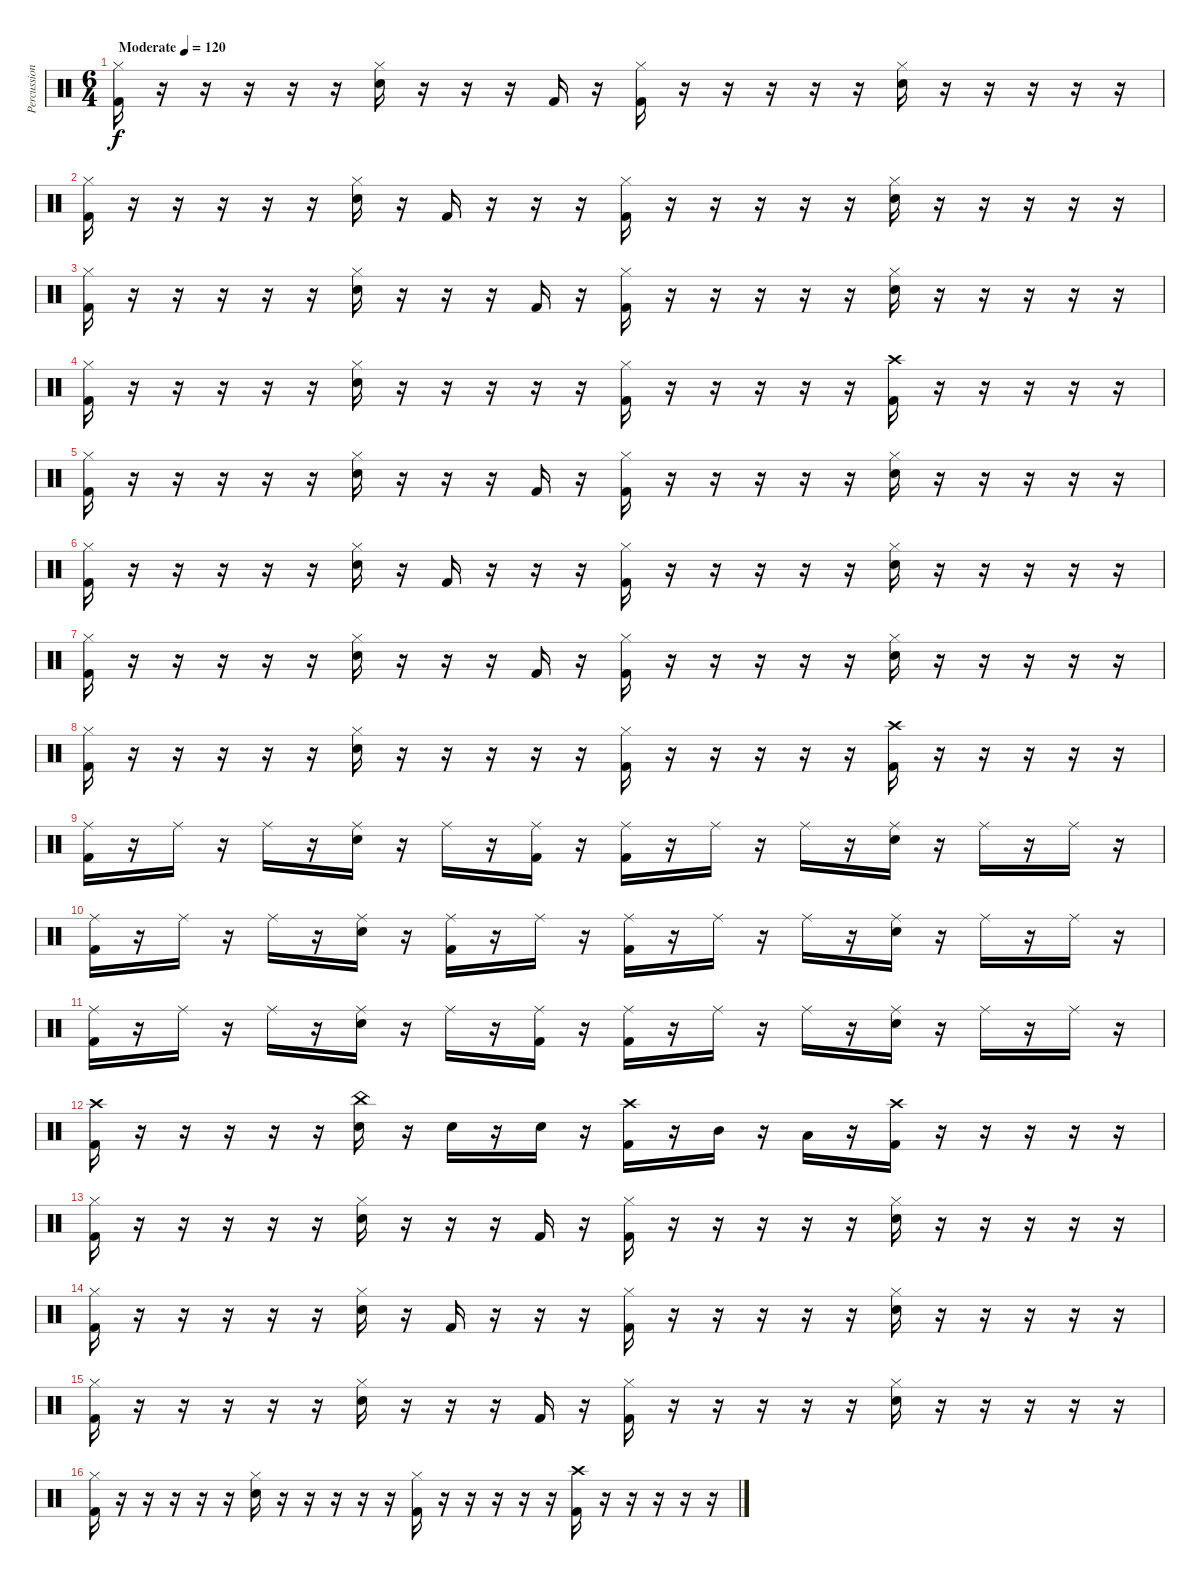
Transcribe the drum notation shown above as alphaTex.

\track ("Percussion" "Percussion") {instrument percussion}
\staff {score}
\articulation defaults
\ts (6 4)
\tempo (120 "Moderate")
\clef neutral
\ks c
("Hi-Hat (closed)" "Kick (hit) 2").16{dy f} r.16 r.16 r.16 r.16 r.16 ("Hi-Hat (closed)" "Electric Snare (hit)").16 r.16 r.16 r.16 "Kick (hit) 2".16 r.16 ("Hi-Hat (closed)" "Kick (hit) 2").16 r.16 r.16 r.16 r.16 r.16 ("Hi-Hat (closed)" "Electric Snare (hit)").16 r.16 r.16 r.16 r.16 r.16 |
("Hi-Hat (closed)" "Kick (hit) 2").16 r.16 r.16 r.16 r.16 r.16 ("Hi-Hat (closed)" "Electric Snare (hit)").16 r.16 "Kick (hit) 2".16 r.16 r.16 r.16 ("Hi-Hat (closed)" "Kick (hit) 2").16 r.16 r.16 r.16 r.16 r.16 ("Hi-Hat (closed)" "Electric Snare (hit)").16 r.16 r.16 r.16 r.16 r.16 |
("Hi-Hat (closed)" "Kick (hit) 2").16 r.16 r.16 r.16 r.16 r.16 ("Hi-Hat (closed)" "Electric Snare (hit)").16 r.16 r.16 r.16 "Kick (hit) 2".16 r.16 ("Hi-Hat (closed)" "Kick (hit) 2").16 r.16 r.16 r.16 r.16 r.16 ("Hi-Hat (closed)" "Electric Snare (hit)").16 r.16 r.16 r.16 r.16 r.16 |
("Hi-Hat (closed)" "Kick (hit) 2").16 r.16 r.16 r.16 r.16 r.16 ("Hi-Hat (closed)" "Electric Snare (hit)").16 r.16 r.16 r.16 r.16 r.16 ("Hi-Hat (closed)" "Kick (hit) 2").16 r.16 r.16 r.16 r.16 r.16 ("Kick (hit) 2" "Crash high (hit)").16 r.16 r.16 r.16 r.16 r.16 |
("Hi-Hat (closed)" "Kick (hit) 2").16 r.16 r.16 r.16 r.16 r.16 ("Hi-Hat (closed)" "Electric Snare (hit)").16 r.16 r.16 r.16 "Kick (hit) 2".16 r.16 ("Hi-Hat (closed)" "Kick (hit) 2").16 r.16 r.16 r.16 r.16 r.16 ("Hi-Hat (closed)" "Electric Snare (hit)").16 r.16 r.16 r.16 r.16 r.16 |
("Hi-Hat (closed)" "Kick (hit) 2").16 r.16 r.16 r.16 r.16 r.16 ("Hi-Hat (closed)" "Electric Snare (hit)").16 r.16 "Kick (hit) 2".16 r.16 r.16 r.16 ("Hi-Hat (closed)" "Kick (hit) 2").16 r.16 r.16 r.16 r.16 r.16 ("Hi-Hat (closed)" "Electric Snare (hit)").16 r.16 r.16 r.16 r.16 r.16 |
("Hi-Hat (closed)" "Kick (hit) 2").16 r.16 r.16 r.16 r.16 r.16 ("Hi-Hat (closed)" "Electric Snare (hit)").16 r.16 r.16 r.16 "Kick (hit) 2".16 r.16 ("Hi-Hat (closed)" "Kick (hit) 2").16 r.16 r.16 r.16 r.16 r.16 ("Hi-Hat (closed)" "Electric Snare (hit)").16 r.16 r.16 r.16 r.16 r.16 |
("Hi-Hat (closed)" "Kick (hit) 2").16 r.16 r.16 r.16 r.16 r.16 ("Hi-Hat (closed)" "Electric Snare (hit)").16 r.16 r.16 r.16 r.16 r.16 ("Hi-Hat (closed)" "Kick (hit) 2").16 r.16 r.16 r.16 r.16 r.16 ("Kick (hit) 2" "Crash high (hit)").16 r.16 r.16 r.16 r.16 r.16 |
("Ride (middle)" "Kick (hit) 2").16 r.16 "Ride (middle)".16 r.16 "Ride (middle)".16 r.16 ("Ride (middle)" "Electric Snare (hit)").16 r.16 "Ride (middle)".16 r.16 ("Ride (middle)" "Kick (hit) 2").16 r.16 ("Ride (middle)" "Kick (hit) 2").16 r.16 "Ride (middle)".16 r.16 "Ride (middle)".16 r.16 ("Ride (middle)" "Electric Snare (hit)").16 r.16 "Ride (middle)".16 r.16 "Ride (middle)".16 r.16 |
("Ride (middle)" "Kick (hit) 2").16 r.16 "Ride (middle)".16 r.16 "Ride (middle)".16 r.16 ("Ride (middle)" "Electric Snare (hit)").16 r.16 ("Ride (middle)" "Kick (hit) 2").16 r.16 "Ride (middle)".16 r.16 ("Ride (middle)" "Kick (hit) 2").16 r.16 "Ride (middle)".16 r.16 "Ride (middle)".16 r.16 ("Ride (middle)" "Electric Snare (hit)").16 r.16 "Ride (middle)".16 r.16 "Ride (middle)".16 r.16 |
("Ride (middle)" "Kick (hit) 2").16 r.16 "Ride (middle)".16 r.16 "Ride (middle)".16 r.16 ("Ride (middle)" "Electric Snare (hit)").16 r.16 "Ride (middle)".16 r.16 ("Ride (middle)" "Kick (hit) 2").16 r.16 ("Ride (middle)" "Kick (hit) 2").16 r.16 "Ride (middle)".16 r.16 "Ride (middle)".16 r.16 ("Ride (middle)" "Electric Snare (hit)").16 r.16 "Ride (middle)".16 r.16 "Ride (middle)".16 r.16 |
("Crash high (hit)" "Kick (hit) 2").16 r.16 r.16 r.16 r.16 r.16 ("China (hit)" "Electric Snare (hit)").16 r.16 "Electric Snare (hit)".16 r.16 "Electric Snare (hit)".16 r.16 ("Crash high (hit)" "Kick (hit) 2").16 r.16 "Mid Tom (hit)".16 r.16 "Low Tom (hit)".16 r.16 ("Kick (hit) 2" "Crash high (hit)").16 r.16 r.16 r.16 r.16 r.16 |
("Hi-Hat (closed)" "Kick (hit) 2").16 r.16 r.16 r.16 r.16 r.16 ("Hi-Hat (closed)" "Electric Snare (hit)").16 r.16 r.16 r.16 "Kick (hit) 2".16 r.16 ("Hi-Hat (closed)" "Kick (hit) 2").16 r.16 r.16 r.16 r.16 r.16 ("Hi-Hat (closed)" "Electric Snare (hit)").16 r.16 r.16 r.16 r.16 r.16 |
("Hi-Hat (closed)" "Kick (hit) 2").16 r.16 r.16 r.16 r.16 r.16 ("Hi-Hat (closed)" "Electric Snare (hit)").16 r.16 "Kick (hit) 2".16 r.16 r.16 r.16 ("Hi-Hat (closed)" "Kick (hit) 2").16 r.16 r.16 r.16 r.16 r.16 ("Hi-Hat (closed)" "Electric Snare (hit)").16 r.16 r.16 r.16 r.16 r.16 |
("Hi-Hat (closed)" "Kick (hit) 2").16 r.16 r.16 r.16 r.16 r.16 ("Hi-Hat (closed)" "Electric Snare (hit)").16 r.16 r.16 r.16 "Kick (hit) 2".16 r.16 ("Hi-Hat (closed)" "Kick (hit) 2").16 r.16 r.16 r.16 r.16 r.16 ("Hi-Hat (closed)" "Electric Snare (hit)").16 r.16 r.16 r.16 r.16 r.16 |
("Hi-Hat (closed)" "Kick (hit) 2").16 r.16 r.16 r.16 r.16 r.16 ("Hi-Hat (closed)" "Electric Snare (hit)").16 r.16 r.16 r.16 r.16 r.16 ("Hi-Hat (closed)" "Kick (hit) 2").16 r.16 r.16 r.16 r.16 r.16 ("Kick (hit) 2" "Crash high (hit)").16 r.16 r.16 r.16 r.16 r.16
